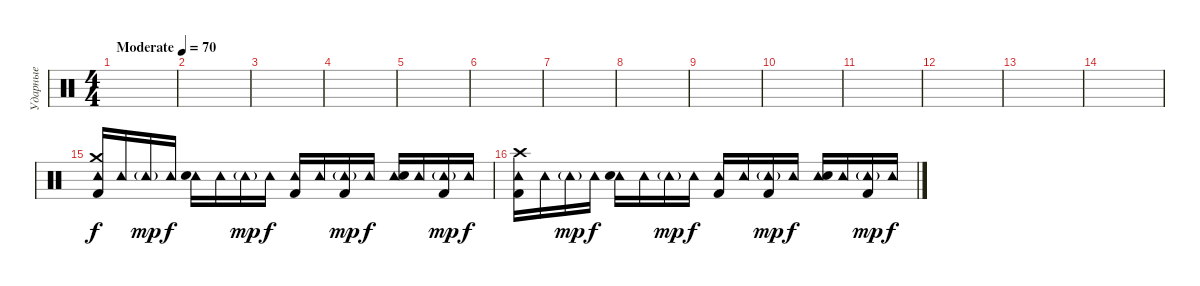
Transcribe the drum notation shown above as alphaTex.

\track ("Ударные" "Ударные") {instrument percussion}
\staff {score}
\articulation defaults
\ts (4 4)
\tempo (70 "Moderate")
\clef neutral
\ks c
|
|
|
|
|
|
|
|
|
|
|
|
|
|
("Tambourine (hit)" "Crash medium (hit)" "Kick (hit) 2").16 "Tambourine (hit)".16 "Tambourine (hit)"{g}.16{dy mp} "Tambourine (hit)".16{dy f} ("Tambourine (hit)" "Snare (hit) 2").16 "Tambourine (hit)".16 "Tambourine (hit)"{g}.16{dy mp} "Tambourine (hit)".16{dy f} ("Tambourine (hit)" "Kick (hit) 2").16 "Tambourine (hit)".16 ("Tambourine (hit)"{g} "Kick (hit) 2").16{dy mp} "Tambourine (hit)".16{dy f} ("Tambourine (hit)" "Snare (hit) 2").16 "Tambourine (hit)".16 ("Tambourine (hit)"{g} "Kick (hit) 2").16{dy mp} "Tambourine (hit)".16{dy f} |
("Tambourine (hit)" "Crash high (hit)" "Kick (hit) 2").16 "Tambourine (hit)".16 "Tambourine (hit)"{g}.16{dy mp} "Tambourine (hit)".16{dy f} ("Tambourine (hit)" "Snare (hit) 2").16 "Tambourine (hit)".16 "Tambourine (hit)"{g}.16{dy mp} "Tambourine (hit)".16{dy f} ("Tambourine (hit)" "Kick (hit) 2").16 "Tambourine (hit)".16 ("Tambourine (hit)"{g} "Kick (hit) 2").16{dy mp} "Tambourine (hit)".16{dy f} ("Tambourine (hit)" "Snare (hit) 2").16 "Tambourine (hit)".16 ("Tambourine (hit)"{g} "Kick (hit) 2").16{dy mp} "Tambourine (hit)".16{dy f}
